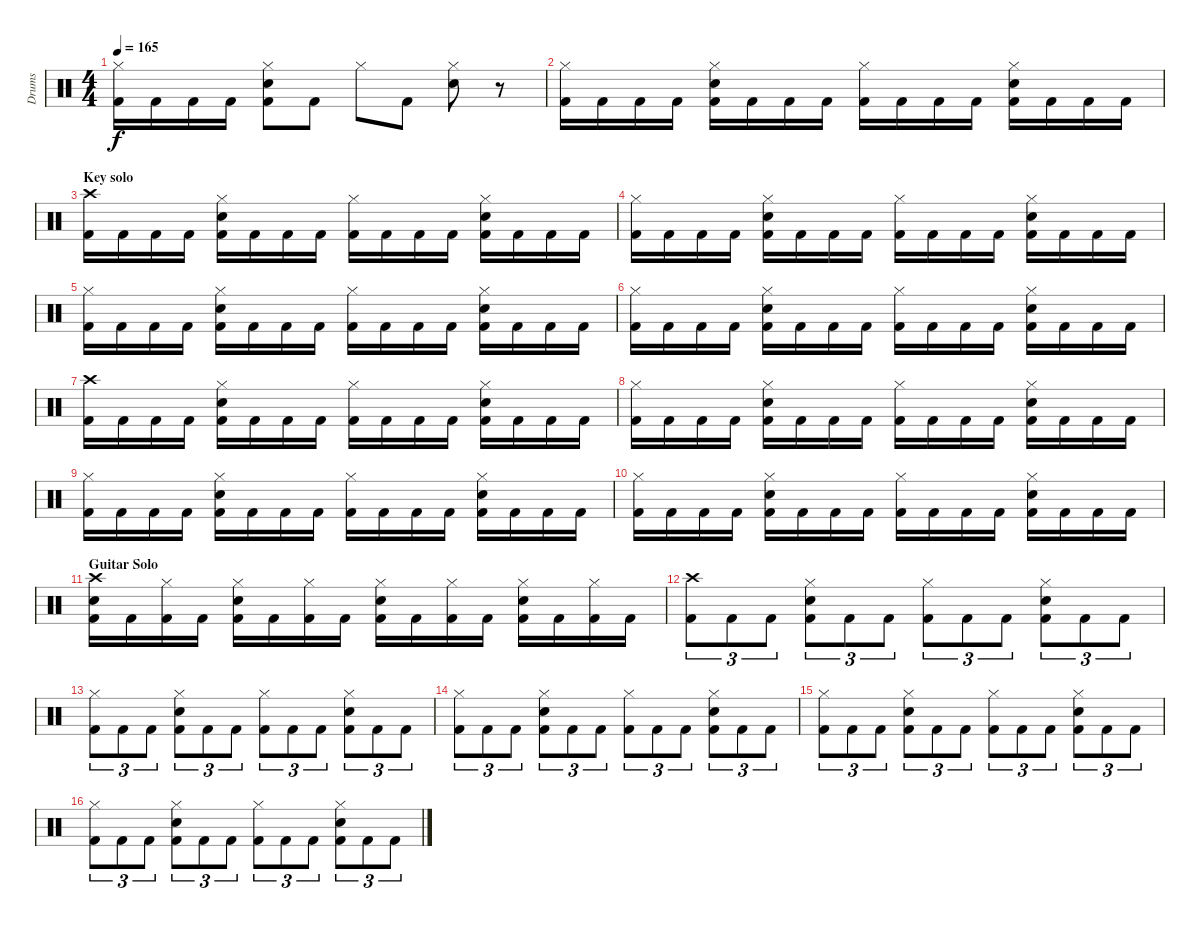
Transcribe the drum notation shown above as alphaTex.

\track ("Drums" "Drums") {instrument percussion}
\staff {score}
\articulation defaults
\ts (4 4)
\tempo 165
\clef neutral
\ks c
("Hi-Hat (closed)" "Kick (hit) 2").16{dy f} "Kick (hit) 2".16 "Kick (hit) 2".16 "Kick (hit) 2".16 ("Hi-Hat (closed)" "Electric Snare (hit)" "Kick (hit) 2").8 "Kick (hit) 2".8 "Hi-Hat (closed)".8 "Kick (hit) 2".8 ("Hi-Hat (closed)" "Electric Snare (hit)").8 r.8 |
("Hi-Hat (closed)" "Kick (hit) 2").16 "Kick (hit) 2".16 "Kick (hit) 2".16 "Kick (hit) 2".16 ("Hi-Hat (closed)" "Electric Snare (hit)" "Kick (hit) 2").16 "Kick (hit) 2".16 "Kick (hit) 2".16 "Kick (hit) 2".16 ("Hi-Hat (closed)" "Kick (hit) 2").16 "Kick (hit) 2".16 "Kick (hit) 2".16 "Kick (hit) 2".16 ("Hi-Hat (closed)" "Electric Snare (hit)" "Kick (hit) 2").16 "Kick (hit) 2".16 "Kick (hit) 2".16 "Kick (hit) 2".16 |
\section ("" "Key solo")
("Crash high (hit)" "Kick (hit) 2").16 "Kick (hit) 2".16 "Kick (hit) 2".16 "Kick (hit) 2".16 ("Hi-Hat (closed)" "Electric Snare (hit)" "Kick (hit) 2").16 "Kick (hit) 2".16 "Kick (hit) 2".16 "Kick (hit) 2".16 ("Hi-Hat (closed)" "Kick (hit) 2").16 "Kick (hit) 2".16 "Kick (hit) 2".16 "Kick (hit) 2".16 ("Hi-Hat (closed)" "Electric Snare (hit)" "Kick (hit) 2").16 "Kick (hit) 2".16 "Kick (hit) 2".16 "Kick (hit) 2".16 |
("Hi-Hat (closed)" "Kick (hit) 2").16 "Kick (hit) 2".16 "Kick (hit) 2".16 "Kick (hit) 2".16 ("Hi-Hat (closed)" "Electric Snare (hit)" "Kick (hit) 2").16 "Kick (hit) 2".16 "Kick (hit) 2".16 "Kick (hit) 2".16 ("Hi-Hat (closed)" "Kick (hit) 2").16 "Kick (hit) 2".16 "Kick (hit) 2".16 "Kick (hit) 2".16 ("Hi-Hat (closed)" "Electric Snare (hit)" "Kick (hit) 2").16 "Kick (hit) 2".16 "Kick (hit) 2".16 "Kick (hit) 2".16 |
("Hi-Hat (closed)" "Kick (hit) 2").16 "Kick (hit) 2".16 "Kick (hit) 2".16 "Kick (hit) 2".16 ("Hi-Hat (closed)" "Electric Snare (hit)" "Kick (hit) 2").16 "Kick (hit) 2".16 "Kick (hit) 2".16 "Kick (hit) 2".16 ("Hi-Hat (closed)" "Kick (hit) 2").16 "Kick (hit) 2".16 "Kick (hit) 2".16 "Kick (hit) 2".16 ("Hi-Hat (closed)" "Electric Snare (hit)" "Kick (hit) 2").16 "Kick (hit) 2".16 "Kick (hit) 2".16 "Kick (hit) 2".16 |
("Hi-Hat (closed)" "Kick (hit) 2").16 "Kick (hit) 2".16 "Kick (hit) 2".16 "Kick (hit) 2".16 ("Hi-Hat (closed)" "Electric Snare (hit)" "Kick (hit) 2").16 "Kick (hit) 2".16 "Kick (hit) 2".16 "Kick (hit) 2".16 ("Hi-Hat (closed)" "Kick (hit) 2").16 "Kick (hit) 2".16 "Kick (hit) 2".16 "Kick (hit) 2".16 ("Hi-Hat (closed)" "Electric Snare (hit)" "Kick (hit) 2").16 "Kick (hit) 2".16 "Kick (hit) 2".16 "Kick (hit) 2".16 |
("Crash high (hit)" "Kick (hit) 2").16 "Kick (hit) 2".16 "Kick (hit) 2".16 "Kick (hit) 2".16 ("Hi-Hat (closed)" "Electric Snare (hit)" "Kick (hit) 2").16 "Kick (hit) 2".16 "Kick (hit) 2".16 "Kick (hit) 2".16 ("Hi-Hat (closed)" "Kick (hit) 2").16 "Kick (hit) 2".16 "Kick (hit) 2".16 "Kick (hit) 2".16 ("Hi-Hat (closed)" "Electric Snare (hit)" "Kick (hit) 2").16 "Kick (hit) 2".16 "Kick (hit) 2".16 "Kick (hit) 2".16 |
("Hi-Hat (closed)" "Kick (hit) 2").16 "Kick (hit) 2".16 "Kick (hit) 2".16 "Kick (hit) 2".16 ("Hi-Hat (closed)" "Electric Snare (hit)" "Kick (hit) 2").16 "Kick (hit) 2".16 "Kick (hit) 2".16 "Kick (hit) 2".16 ("Hi-Hat (closed)" "Kick (hit) 2").16 "Kick (hit) 2".16 "Kick (hit) 2".16 "Kick (hit) 2".16 ("Hi-Hat (closed)" "Electric Snare (hit)" "Kick (hit) 2").16 "Kick (hit) 2".16 "Kick (hit) 2".16 "Kick (hit) 2".16 |
("Hi-Hat (closed)" "Kick (hit) 2").16 "Kick (hit) 2".16 "Kick (hit) 2".16 "Kick (hit) 2".16 ("Hi-Hat (closed)" "Electric Snare (hit)" "Kick (hit) 2").16 "Kick (hit) 2".16 "Kick (hit) 2".16 "Kick (hit) 2".16 ("Hi-Hat (closed)" "Kick (hit) 2").16 "Kick (hit) 2".16 "Kick (hit) 2".16 "Kick (hit) 2".16 ("Hi-Hat (closed)" "Electric Snare (hit)" "Kick (hit) 2").16 "Kick (hit) 2".16 "Kick (hit) 2".16 "Kick (hit) 2".16 |
("Hi-Hat (closed)" "Kick (hit) 2").16 "Kick (hit) 2".16 "Kick (hit) 2".16 "Kick (hit) 2".16 ("Hi-Hat (closed)" "Electric Snare (hit)" "Kick (hit) 2").16 "Kick (hit) 2".16 "Kick (hit) 2".16 "Kick (hit) 2".16 ("Hi-Hat (closed)" "Kick (hit) 2").16 "Kick (hit) 2".16 "Kick (hit) 2".16 "Kick (hit) 2".16 ("Hi-Hat (closed)" "Electric Snare (hit)" "Kick (hit) 2").16 "Kick (hit) 2".16 "Kick (hit) 2".16 "Kick (hit) 2".16 |
\section ("" "Guitar Solo")
("Crash high (hit)" "Electric Snare (hit)" "Kick (hit) 2").16 "Kick (hit) 2".16 ("Hi-Hat (closed)" "Kick (hit) 2").16 "Kick (hit) 2".16 ("Hi-Hat (closed)" "Electric Snare (hit)" "Kick (hit) 2").16 "Kick (hit) 2".16 ("Hi-Hat (closed)" "Kick (hit) 2").16 "Kick (hit) 2".16 ("Hi-Hat (closed)" "Electric Snare (hit)" "Kick (hit) 2").16 "Kick (hit) 2".16 ("Hi-Hat (closed)" "Kick (hit) 2").16 "Kick (hit) 2".16 ("Hi-Hat (closed)" "Electric Snare (hit)" "Kick (hit) 2").16 "Kick (hit) 2".16 ("Hi-Hat (closed)" "Kick (hit) 2").16 "Kick (hit) 2".16 |
("Crash high (hit)" "Kick (hit) 2").8{tu (3 2)} "Kick (hit) 2".8{tu (3 2)} "Kick (hit) 2".8{tu (3 2)} ("Hi-Hat (closed)" "Electric Snare (hit)" "Kick (hit) 2").8{tu (3 2)} "Kick (hit) 2".8{tu (3 2)} "Kick (hit) 2".8{tu (3 2)} ("Hi-Hat (closed)" "Kick (hit) 2").8{tu (3 2)} "Kick (hit) 2".8{tu (3 2)} "Kick (hit) 2".8{tu (3 2)} ("Hi-Hat (closed)" "Electric Snare (hit)" "Kick (hit) 2").8{tu (3 2)} "Kick (hit) 2".8{tu (3 2)} "Kick (hit) 2".8{tu (3 2)} |
("Hi-Hat (closed)" "Kick (hit) 2").8{tu (3 2)} "Kick (hit) 2".8{tu (3 2)} "Kick (hit) 2".8{tu (3 2)} ("Hi-Hat (closed)" "Electric Snare (hit)" "Kick (hit) 2").8{tu (3 2)} "Kick (hit) 2".8{tu (3 2)} "Kick (hit) 2".8{tu (3 2)} ("Hi-Hat (closed)" "Kick (hit) 2").8{tu (3 2)} "Kick (hit) 2".8{tu (3 2)} "Kick (hit) 2".8{tu (3 2)} ("Hi-Hat (closed)" "Electric Snare (hit)" "Kick (hit) 2").8{tu (3 2)} "Kick (hit) 2".8{tu (3 2)} "Kick (hit) 2".8{tu (3 2)} |
("Hi-Hat (closed)" "Kick (hit) 2").8{tu (3 2)} "Kick (hit) 2".8{tu (3 2)} "Kick (hit) 2".8{tu (3 2)} ("Hi-Hat (closed)" "Electric Snare (hit)" "Kick (hit) 2").8{tu (3 2)} "Kick (hit) 2".8{tu (3 2)} "Kick (hit) 2".8{tu (3 2)} ("Hi-Hat (closed)" "Kick (hit) 2").8{tu (3 2)} "Kick (hit) 2".8{tu (3 2)} "Kick (hit) 2".8{tu (3 2)} ("Hi-Hat (closed)" "Electric Snare (hit)" "Kick (hit) 2").8{tu (3 2)} "Kick (hit) 2".8{tu (3 2)} "Kick (hit) 2".8{tu (3 2)} |
("Hi-Hat (closed)" "Kick (hit) 2").8{tu (3 2)} "Kick (hit) 2".8{tu (3 2)} "Kick (hit) 2".8{tu (3 2)} ("Hi-Hat (closed)" "Electric Snare (hit)" "Kick (hit) 2").8{tu (3 2)} "Kick (hit) 2".8{tu (3 2)} "Kick (hit) 2".8{tu (3 2)} ("Hi-Hat (closed)" "Kick (hit) 2").8{tu (3 2)} "Kick (hit) 2".8{tu (3 2)} "Kick (hit) 2".8{tu (3 2)} ("Hi-Hat (closed)" "Electric Snare (hit)" "Kick (hit) 2").8{tu (3 2)} "Kick (hit) 2".8{tu (3 2)} "Kick (hit) 2".8{tu (3 2)} |
("Hi-Hat (closed)" "Kick (hit) 2").8{tu (3 2)} "Kick (hit) 2".8{tu (3 2)} "Kick (hit) 2".8{tu (3 2)} ("Hi-Hat (closed)" "Electric Snare (hit)" "Kick (hit) 2").8{tu (3 2)} "Kick (hit) 2".8{tu (3 2)} "Kick (hit) 2".8{tu (3 2)} ("Hi-Hat (closed)" "Kick (hit) 2").8{tu (3 2)} "Kick (hit) 2".8{tu (3 2)} "Kick (hit) 2".8{tu (3 2)} ("Hi-Hat (closed)" "Electric Snare (hit)" "Kick (hit) 2").8{tu (3 2)} "Kick (hit) 2".8{tu (3 2)} "Kick (hit) 2".8{tu (3 2)}
